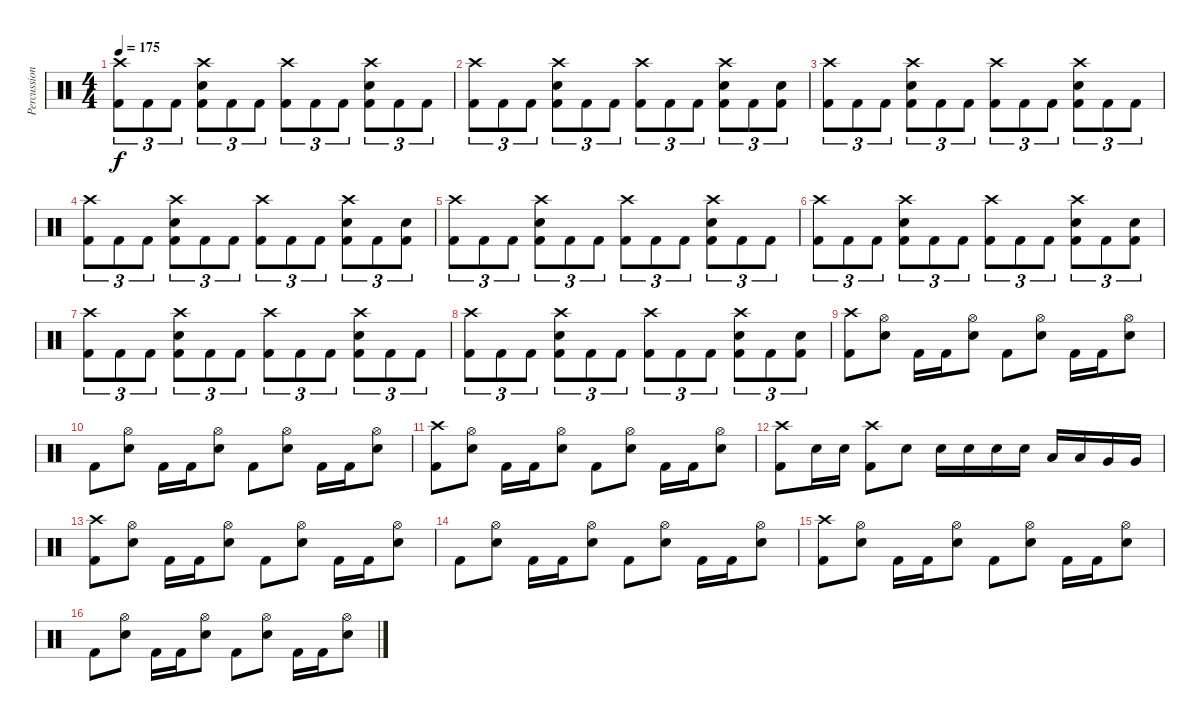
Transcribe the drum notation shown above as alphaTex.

\track ("Percussion" "Percussion") {instrument percussion}
\staff {score}
\articulation defaults
\ts (4 4)
\tempo 175
\clef neutral
\ks c
("Crash high (hit)" "Kick (hit) 2").8{tu (3 2) dy f} "Kick (hit) 2".8{tu (3 2)} "Kick (hit) 2".8{tu (3 2)} ("Crash high (hit)" "Electric Snare (hit)" "Kick (hit) 2").8{tu (3 2)} "Kick (hit) 2".8{tu (3 2)} "Kick (hit) 2".8{tu (3 2)} ("Crash high (hit)" "Kick (hit) 2").8{tu (3 2)} "Kick (hit) 2".8{tu (3 2)} "Kick (hit) 2".8{tu (3 2)} ("Crash high (hit)" "Electric Snare (hit)" "Kick (hit) 2").8{tu (3 2)} "Kick (hit) 2".8{tu (3 2)} "Kick (hit) 2".8{tu (3 2)} |
("Crash high (hit)" "Kick (hit) 2").8{tu (3 2)} "Kick (hit) 2".8{tu (3 2)} "Kick (hit) 2".8{tu (3 2)} ("Crash high (hit)" "Electric Snare (hit)" "Kick (hit) 2").8{tu (3 2)} "Kick (hit) 2".8{tu (3 2)} "Kick (hit) 2".8{tu (3 2)} ("Crash high (hit)" "Kick (hit) 2").8{tu (3 2)} "Kick (hit) 2".8{tu (3 2)} "Kick (hit) 2".8{tu (3 2)} ("Crash high (hit)" "Electric Snare (hit)" "Kick (hit) 2").8{tu (3 2)} "Kick (hit) 2".8{tu (3 2)} ("Electric Snare (hit)" "Kick (hit) 2").8{tu (3 2)} |
("Crash high (hit)" "Kick (hit) 2").8{tu (3 2)} "Kick (hit) 2".8{tu (3 2)} "Kick (hit) 2".8{tu (3 2)} ("Crash high (hit)" "Electric Snare (hit)" "Kick (hit) 2").8{tu (3 2)} "Kick (hit) 2".8{tu (3 2)} "Kick (hit) 2".8{tu (3 2)} ("Crash high (hit)" "Kick (hit) 2").8{tu (3 2)} "Kick (hit) 2".8{tu (3 2)} "Kick (hit) 2".8{tu (3 2)} ("Crash high (hit)" "Electric Snare (hit)" "Kick (hit) 2").8{tu (3 2)} "Kick (hit) 2".8{tu (3 2)} "Kick (hit) 2".8{tu (3 2)} |
("Crash high (hit)" "Kick (hit) 2").8{tu (3 2)} "Kick (hit) 2".8{tu (3 2)} "Kick (hit) 2".8{tu (3 2)} ("Crash high (hit)" "Electric Snare (hit)" "Kick (hit) 2").8{tu (3 2)} "Kick (hit) 2".8{tu (3 2)} "Kick (hit) 2".8{tu (3 2)} ("Crash high (hit)" "Kick (hit) 2").8{tu (3 2)} "Kick (hit) 2".8{tu (3 2)} "Kick (hit) 2".8{tu (3 2)} ("Crash high (hit)" "Electric Snare (hit)" "Kick (hit) 2").8{tu (3 2)} "Kick (hit) 2".8{tu (3 2)} ("Electric Snare (hit)" "Kick (hit) 2").8{tu (3 2)} |
("Crash high (hit)" "Kick (hit) 2").8{tu (3 2)} "Kick (hit) 2".8{tu (3 2)} "Kick (hit) 2".8{tu (3 2)} ("Crash high (hit)" "Electric Snare (hit)" "Kick (hit) 2").8{tu (3 2)} "Kick (hit) 2".8{tu (3 2)} "Kick (hit) 2".8{tu (3 2)} ("Crash high (hit)" "Kick (hit) 2").8{tu (3 2)} "Kick (hit) 2".8{tu (3 2)} "Kick (hit) 2".8{tu (3 2)} ("Crash high (hit)" "Electric Snare (hit)" "Kick (hit) 2").8{tu (3 2)} "Kick (hit) 2".8{tu (3 2)} "Kick (hit) 2".8{tu (3 2)} |
("Crash high (hit)" "Kick (hit) 2").8{tu (3 2)} "Kick (hit) 2".8{tu (3 2)} "Kick (hit) 2".8{tu (3 2)} ("Crash high (hit)" "Electric Snare (hit)" "Kick (hit) 2").8{tu (3 2)} "Kick (hit) 2".8{tu (3 2)} "Kick (hit) 2".8{tu (3 2)} ("Crash high (hit)" "Kick (hit) 2").8{tu (3 2)} "Kick (hit) 2".8{tu (3 2)} "Kick (hit) 2".8{tu (3 2)} ("Crash high (hit)" "Electric Snare (hit)" "Kick (hit) 2").8{tu (3 2)} "Kick (hit) 2".8{tu (3 2)} ("Electric Snare (hit)" "Kick (hit) 2").8{tu (3 2)} |
("Crash high (hit)" "Kick (hit) 2").8{tu (3 2)} "Kick (hit) 2".8{tu (3 2)} "Kick (hit) 2".8{tu (3 2)} ("Crash high (hit)" "Electric Snare (hit)" "Kick (hit) 2").8{tu (3 2)} "Kick (hit) 2".8{tu (3 2)} "Kick (hit) 2".8{tu (3 2)} ("Crash high (hit)" "Kick (hit) 2").8{tu (3 2)} "Kick (hit) 2".8{tu (3 2)} "Kick (hit) 2".8{tu (3 2)} ("Crash high (hit)" "Electric Snare (hit)" "Kick (hit) 2").8{tu (3 2)} "Kick (hit) 2".8{tu (3 2)} "Kick (hit) 2".8{tu (3 2)} |
("Crash high (hit)" "Kick (hit) 2").8{tu (3 2)} "Kick (hit) 2".8{tu (3 2)} "Kick (hit) 2".8{tu (3 2)} ("Crash high (hit)" "Electric Snare (hit)" "Kick (hit) 2").8{tu (3 2)} "Kick (hit) 2".8{tu (3 2)} "Kick (hit) 2".8{tu (3 2)} ("Crash high (hit)" "Kick (hit) 2").8{tu (3 2)} "Kick (hit) 2".8{tu (3 2)} "Kick (hit) 2".8{tu (3 2)} ("Crash high (hit)" "Electric Snare (hit)" "Kick (hit) 2").8{tu (3 2)} "Kick (hit) 2".8{tu (3 2)} ("Electric Snare (hit)" "Kick (hit) 2").8{tu (3 2)} |
("Crash high (hit)" "Kick (hit) 2").8 ("Hi-Hat (open)" "Electric Snare (hit)").8 "Kick (hit) 2".16 "Kick (hit) 2".16 ("Hi-Hat (open)" "Electric Snare (hit)").8 "Kick (hit) 2".8 ("Hi-Hat (open)" "Electric Snare (hit)").8 "Kick (hit) 2".16 "Kick (hit) 2".16 ("Hi-Hat (open)" "Electric Snare (hit)").8 |
"Kick (hit) 2".8 ("Hi-Hat (open)" "Electric Snare (hit)").8 "Kick (hit) 2".16 "Kick (hit) 2".16 ("Hi-Hat (open)" "Electric Snare (hit)").8 "Kick (hit) 2".8 ("Hi-Hat (open)" "Electric Snare (hit)").8 "Kick (hit) 2".16 "Kick (hit) 2".16 ("Hi-Hat (open)" "Electric Snare (hit)").8 |
("Crash high (hit)" "Kick (hit) 2").8 ("Hi-Hat (open)" "Electric Snare (hit)").8 "Kick (hit) 2".16 "Kick (hit) 2".16 ("Hi-Hat (open)" "Electric Snare (hit)").8 "Kick (hit) 2".8 ("Hi-Hat (open)" "Electric Snare (hit)").8 "Kick (hit) 2".16 "Kick (hit) 2".16 ("Hi-Hat (open)" "Electric Snare (hit)").8 |
("Crash high (hit)" "Kick (hit) 2").8 "Electric Snare (hit)".16 "Electric Snare (hit)".16 ("Crash high (hit)" "Kick (hit) 2").8 "Electric Snare (hit)".8 "Electric Snare (hit)".16 "Electric Snare (hit)".16 "Electric Snare (hit)".16 "Electric Snare (hit)".16 "Low Tom (hit)".16 "Low Tom (hit)".16 "Very Low Tom (hit)".16 "Very Low Tom (hit)".16 |
("Crash high (hit)" "Kick (hit) 2").8 ("Hi-Hat (open)" "Electric Snare (hit)").8 "Kick (hit) 2".16 "Kick (hit) 2".16 ("Hi-Hat (open)" "Electric Snare (hit)").8 "Kick (hit) 2".8 ("Hi-Hat (open)" "Electric Snare (hit)").8 "Kick (hit) 2".16 "Kick (hit) 2".16 ("Hi-Hat (open)" "Electric Snare (hit)").8 |
"Kick (hit) 2".8 ("Hi-Hat (open)" "Electric Snare (hit)").8 "Kick (hit) 2".16 "Kick (hit) 2".16 ("Hi-Hat (open)" "Electric Snare (hit)").8 "Kick (hit) 2".8 ("Hi-Hat (open)" "Electric Snare (hit)").8 "Kick (hit) 2".16 "Kick (hit) 2".16 ("Hi-Hat (open)" "Electric Snare (hit)").8 |
("Crash high (hit)" "Kick (hit) 2").8 ("Hi-Hat (open)" "Electric Snare (hit)").8 "Kick (hit) 2".16 "Kick (hit) 2".16 ("Hi-Hat (open)" "Electric Snare (hit)").8 "Kick (hit) 2".8 ("Hi-Hat (open)" "Electric Snare (hit)").8 "Kick (hit) 2".16 "Kick (hit) 2".16 ("Hi-Hat (open)" "Electric Snare (hit)").8 |
"Kick (hit) 2".8 ("Hi-Hat (open)" "Electric Snare (hit)").8 "Kick (hit) 2".16 "Kick (hit) 2".16 ("Hi-Hat (open)" "Electric Snare (hit)").8 "Kick (hit) 2".8 ("Hi-Hat (open)" "Electric Snare (hit)").8 "Kick (hit) 2".16 "Kick (hit) 2".16 ("Hi-Hat (open)" "Electric Snare (hit)").8
